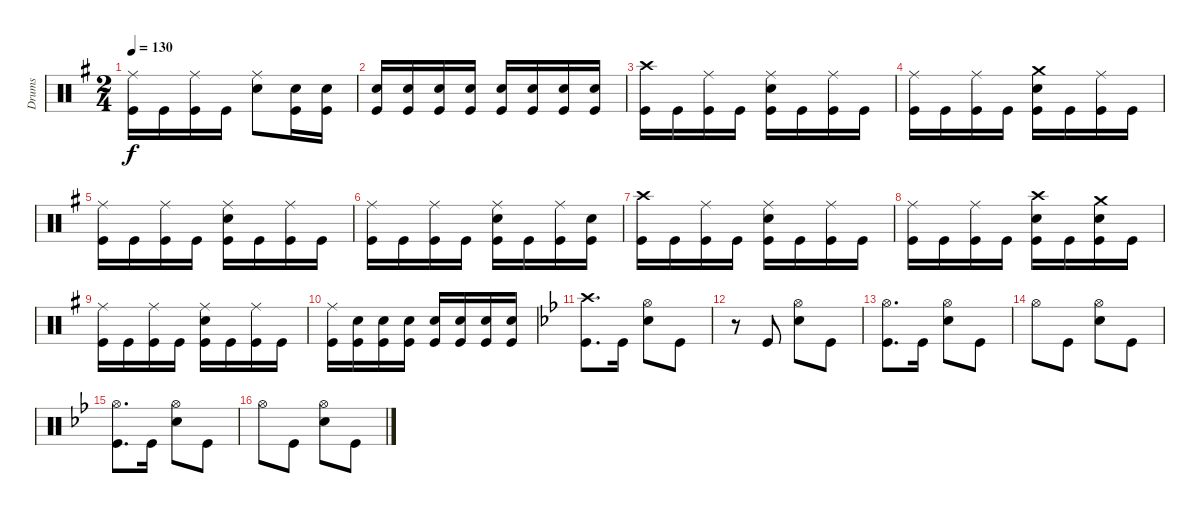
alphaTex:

\track ("Drums" "Drums") {instrument percussion}
\staff {score}
\articulation defaults
\ts (2 4)
\tempo 130
\clef neutral
\ks eminor
("Kick (hit)" "Ride (middle)").16{dy f} "Kick (hit)".16 ("Kick (hit)" "Ride (middle)").16 "Kick (hit)".16 ("Snare (hit) 2" "Ride (middle)").8 ("Snare (hit) 2" "Kick (hit)").16 ("Kick (hit)" "Snare (hit) 2").16 |
("Snare (hit) 2" "Kick (hit)").16 ("Kick (hit)" "Snare (hit) 2").16 ("Kick (hit)" "Snare (hit) 2").16 ("Snare (hit) 2" "Kick (hit)").16 ("Snare (hit) 2" "Kick (hit)").16 ("Snare (hit) 2" "Kick (hit)").16 ("Snare (hit) 2" "Kick (hit)").16 ("Snare (hit) 2" "Kick (hit)").16 |
("Kick (hit)" "Crash high (hit)").16 "Kick (hit)".16 ("Kick (hit)" "Ride (middle)").16 "Kick (hit)".16 ("Kick (hit)" "Snare (hit) 2" "Ride (middle)").16 "Kick (hit)".16 ("Kick (hit)" "Ride (middle)").16 "Kick (hit)".16 |
("Kick (hit)" "Ride (middle)").16 "Kick (hit)".16 ("Kick (hit)" "Ride (middle)").16 "Kick (hit)".16 ("Kick (hit)" "Snare (hit) 2" "Crash medium (hit)").16 "Kick (hit)".16 ("Kick (hit)" "Ride (middle)").16 "Kick (hit)".16 |
("Kick (hit)" "Ride (middle)").16 "Kick (hit)".16 ("Kick (hit)" "Ride (middle)").16 "Kick (hit)".16 ("Kick (hit)" "Snare (hit) 2" "Ride (middle)").16 "Kick (hit)".16 ("Kick (hit)" "Ride (middle)").16 "Kick (hit)".16 |
("Kick (hit)" "Ride (middle)").16 "Kick (hit)".16 ("Kick (hit)" "Ride (middle)").16 "Kick (hit)".16 ("Kick (hit)" "Snare (hit) 2" "Ride (middle)").16 "Kick (hit)".16 ("Kick (hit)" "Ride (middle)").16 ("Kick (hit)" "Snare (hit) 2").16 |
("Kick (hit)" "Crash high (hit)").16 "Kick (hit)".16 ("Kick (hit)" "Ride (middle)").16 "Kick (hit)".16 ("Kick (hit)" "Snare (hit) 2" "Ride (middle)").16 "Kick (hit)".16 ("Kick (hit)" "Ride (middle)").16 "Kick (hit)".16 |
("Kick (hit)" "Ride (middle)").16 "Kick (hit)".16 ("Kick (hit)" "Ride (middle)").16 "Kick (hit)".16 ("Kick (hit)" "Snare (hit) 2" "Crash high (hit)").16 "Kick (hit)".16 ("Kick (hit)" "Crash medium (hit)" "Snare (hit) 2").16 "Kick (hit)".16 |
("Kick (hit)" "Ride (middle)").16 "Kick (hit)".16 ("Kick (hit)" "Ride (middle)").16 "Kick (hit)".16 ("Kick (hit)" "Snare (hit) 2" "Ride (middle)").16 "Kick (hit)".16 ("Kick (hit)" "Ride (middle)").16 "Kick (hit)".16 |
("Kick (hit)" "Ride (middle)").16 ("Kick (hit)" "Snare (hit) 2").16 ("Kick (hit)" "Snare (hit) 2").16 ("Kick (hit)" "Snare (hit) 2").16 ("Kick (hit)" "Snare (hit) 2").16 ("Kick (hit)" "Snare (hit) 2").16 ("Kick (hit)" "Snare (hit) 2").16 ("Kick (hit)" "Snare (hit) 2").16 |
\ks gminor
("Kick (hit)" "Crash high (hit)").8{d} "Kick (hit)".16 ("Snare (hit) 2" "Hi-Hat (open)").8 "Kick (hit)".8 |
r.8 "Kick (hit)".8 ("Snare (hit) 2" "Hi-Hat (open)").8 "Kick (hit)".8 |
("Kick (hit)" "Hi-Hat (open)").8{d} "Kick (hit)".16 ("Snare (hit) 2" "Hi-Hat (open)").8 "Kick (hit)".8 |
"Hi-Hat (open)".8 "Kick (hit)".8 ("Snare (hit) 2" "Hi-Hat (open)").8 "Kick (hit)".8 |
("Kick (hit)" "Hi-Hat (open)").8{d} "Kick (hit)".16 ("Snare (hit) 2" "Hi-Hat (open)").8 "Kick (hit)".8 |
"Hi-Hat (open)".8 "Kick (hit)".8 ("Snare (hit) 2" "Hi-Hat (open)").8 "Kick (hit)".8
